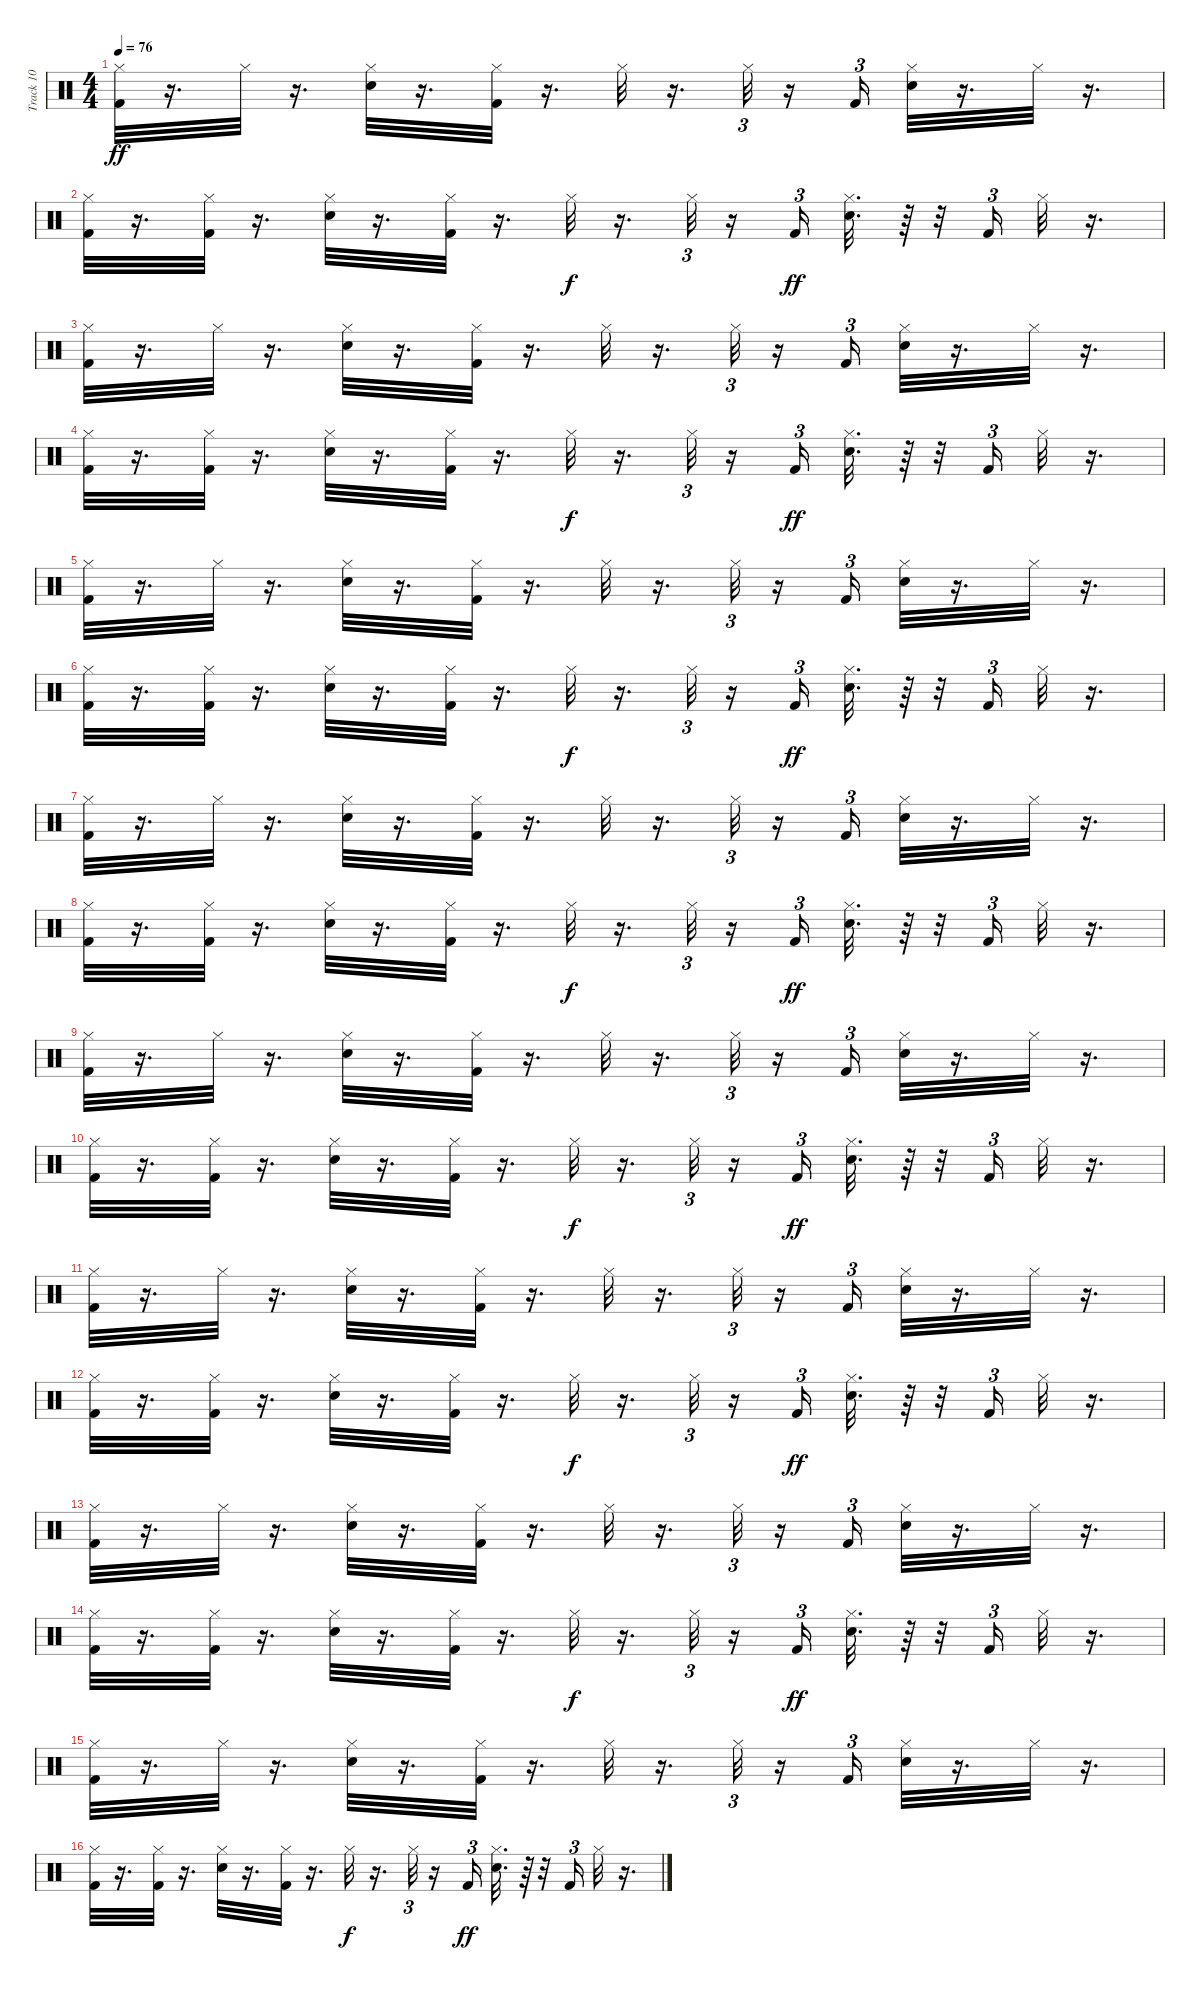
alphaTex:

\track ("Track 10" "Track 10") {instrument percussion}
\staff {score}
\articulation defaults
\ts (4 4)
\tempo 76
\clef neutral
\ks c
("Hi-Hat (closed)" "Kick (hit) 2").32{dy ff} r.16{d} "Hi-Hat (closed)".32 r.16{d} ("Hi-Hat (closed)" "Electric Snare (hit)").32 r.16{d} ("Hi-Hat (closed)" "Kick (hit) 2").32 r.16{d} "Hi-Hat (closed)".32 r.16{d} "Hi-Hat (closed)".32{tu (3 2)} r.16 "Kick (hit) 2".16{tu (3 2)} ("Hi-Hat (closed)" "Electric Snare (hit)").32 r.16{d} "Hi-Hat (closed)".32 r.16{d} |
("Hi-Hat (closed)" "Kick (hit) 2").32 r.16{d} ("Hi-Hat (closed)" "Kick (hit) 2").32 r.16{d} ("Hi-Hat (closed)" "Electric Snare (hit)").32 r.16{d} ("Hi-Hat (closed)" "Kick (hit) 2").32 r.16{d} "Hi-Hat (closed)".32{dy f} r.16{d} "Hi-Hat (closed)".32{tu (3 2)} r.16 "Kick (hit) 2".16{tu (3 2) dy ff} ("Hi-Hat (closed)" "Electric Snare (hit)").32{d} r.64 r.32 "Kick (hit) 2".16{tu (3 2)} "Hi-Hat (closed)".32 r.16{d} |
("Hi-Hat (closed)" "Kick (hit) 2").32 r.16{d} "Hi-Hat (closed)".32 r.16{d} ("Hi-Hat (closed)" "Electric Snare (hit)").32 r.16{d} ("Hi-Hat (closed)" "Kick (hit) 2").32 r.16{d} "Hi-Hat (closed)".32 r.16{d} "Hi-Hat (closed)".32{tu (3 2)} r.16 "Kick (hit) 2".16{tu (3 2)} ("Hi-Hat (closed)" "Electric Snare (hit)").32 r.16{d} "Hi-Hat (closed)".32 r.16{d} |
("Hi-Hat (closed)" "Kick (hit) 2").32 r.16{d} ("Hi-Hat (closed)" "Kick (hit) 2").32 r.16{d} ("Hi-Hat (closed)" "Electric Snare (hit)").32 r.16{d} ("Hi-Hat (closed)" "Kick (hit) 2").32 r.16{d} "Hi-Hat (closed)".32{dy f} r.16{d} "Hi-Hat (closed)".32{tu (3 2)} r.16 "Kick (hit) 2".16{tu (3 2) dy ff} ("Hi-Hat (closed)" "Electric Snare (hit)").32{d} r.64 r.32 "Kick (hit) 2".16{tu (3 2)} "Hi-Hat (closed)".32 r.16{d} |
("Hi-Hat (closed)" "Kick (hit) 2").32 r.16{d} "Hi-Hat (closed)".32 r.16{d} ("Hi-Hat (closed)" "Electric Snare (hit)").32 r.16{d} ("Hi-Hat (closed)" "Kick (hit) 2").32 r.16{d} "Hi-Hat (closed)".32 r.16{d} "Hi-Hat (closed)".32{tu (3 2)} r.16 "Kick (hit) 2".16{tu (3 2)} ("Hi-Hat (closed)" "Electric Snare (hit)").32 r.16{d} "Hi-Hat (closed)".32 r.16{d} |
("Hi-Hat (closed)" "Kick (hit) 2").32 r.16{d} ("Hi-Hat (closed)" "Kick (hit) 2").32 r.16{d} ("Hi-Hat (closed)" "Electric Snare (hit)").32 r.16{d} ("Hi-Hat (closed)" "Kick (hit) 2").32 r.16{d} "Hi-Hat (closed)".32{dy f} r.16{d} "Hi-Hat (closed)".32{tu (3 2)} r.16 "Kick (hit) 2".16{tu (3 2) dy ff} ("Hi-Hat (closed)" "Electric Snare (hit)").32{d} r.64 r.32 "Kick (hit) 2".16{tu (3 2)} "Hi-Hat (closed)".32 r.16{d} |
("Hi-Hat (closed)" "Kick (hit) 2").32 r.16{d} "Hi-Hat (closed)".32 r.16{d} ("Hi-Hat (closed)" "Electric Snare (hit)").32 r.16{d} ("Hi-Hat (closed)" "Kick (hit) 2").32 r.16{d} "Hi-Hat (closed)".32 r.16{d} "Hi-Hat (closed)".32{tu (3 2)} r.16 "Kick (hit) 2".16{tu (3 2)} ("Hi-Hat (closed)" "Electric Snare (hit)").32 r.16{d} "Hi-Hat (closed)".32 r.16{d} |
("Hi-Hat (closed)" "Kick (hit) 2").32 r.16{d} ("Hi-Hat (closed)" "Kick (hit) 2").32 r.16{d} ("Hi-Hat (closed)" "Electric Snare (hit)").32 r.16{d} ("Hi-Hat (closed)" "Kick (hit) 2").32 r.16{d} "Hi-Hat (closed)".32{dy f} r.16{d} "Hi-Hat (closed)".32{tu (3 2)} r.16 "Kick (hit) 2".16{tu (3 2) dy ff} ("Hi-Hat (closed)" "Electric Snare (hit)").32{d} r.64 r.32 "Kick (hit) 2".16{tu (3 2)} "Hi-Hat (closed)".32 r.16{d} |
("Hi-Hat (closed)" "Kick (hit) 2").32 r.16{d} "Hi-Hat (closed)".32 r.16{d} ("Hi-Hat (closed)" "Electric Snare (hit)").32 r.16{d} ("Hi-Hat (closed)" "Kick (hit) 2").32 r.16{d} "Hi-Hat (closed)".32 r.16{d} "Hi-Hat (closed)".32{tu (3 2)} r.16 "Kick (hit) 2".16{tu (3 2)} ("Hi-Hat (closed)" "Electric Snare (hit)").32 r.16{d} "Hi-Hat (closed)".32 r.16{d} |
("Hi-Hat (closed)" "Kick (hit) 2").32 r.16{d} ("Hi-Hat (closed)" "Kick (hit) 2").32 r.16{d} ("Hi-Hat (closed)" "Electric Snare (hit)").32 r.16{d} ("Hi-Hat (closed)" "Kick (hit) 2").32 r.16{d} "Hi-Hat (closed)".32{dy f} r.16{d} "Hi-Hat (closed)".32{tu (3 2)} r.16 "Kick (hit) 2".16{tu (3 2) dy ff} ("Hi-Hat (closed)" "Electric Snare (hit)").32{d} r.64 r.32 "Kick (hit) 2".16{tu (3 2)} "Hi-Hat (closed)".32 r.16{d} |
("Hi-Hat (closed)" "Kick (hit) 2").32 r.16{d} "Hi-Hat (closed)".32 r.16{d} ("Hi-Hat (closed)" "Electric Snare (hit)").32 r.16{d} ("Hi-Hat (closed)" "Kick (hit) 2").32 r.16{d} "Hi-Hat (closed)".32 r.16{d} "Hi-Hat (closed)".32{tu (3 2)} r.16 "Kick (hit) 2".16{tu (3 2)} ("Hi-Hat (closed)" "Electric Snare (hit)").32 r.16{d} "Hi-Hat (closed)".32 r.16{d} |
("Hi-Hat (closed)" "Kick (hit) 2").32 r.16{d} ("Hi-Hat (closed)" "Kick (hit) 2").32 r.16{d} ("Hi-Hat (closed)" "Electric Snare (hit)").32 r.16{d} ("Hi-Hat (closed)" "Kick (hit) 2").32 r.16{d} "Hi-Hat (closed)".32{dy f} r.16{d} "Hi-Hat (closed)".32{tu (3 2)} r.16 "Kick (hit) 2".16{tu (3 2) dy ff} ("Hi-Hat (closed)" "Electric Snare (hit)").32{d} r.64 r.32 "Kick (hit) 2".16{tu (3 2)} "Hi-Hat (closed)".32 r.16{d} |
("Hi-Hat (closed)" "Kick (hit) 2").32 r.16{d} "Hi-Hat (closed)".32 r.16{d} ("Hi-Hat (closed)" "Electric Snare (hit)").32 r.16{d} ("Hi-Hat (closed)" "Kick (hit) 2").32 r.16{d} "Hi-Hat (closed)".32 r.16{d} "Hi-Hat (closed)".32{tu (3 2)} r.16 "Kick (hit) 2".16{tu (3 2)} ("Hi-Hat (closed)" "Electric Snare (hit)").32 r.16{d} "Hi-Hat (closed)".32 r.16{d} |
("Hi-Hat (closed)" "Kick (hit) 2").32 r.16{d} ("Hi-Hat (closed)" "Kick (hit) 2").32 r.16{d} ("Hi-Hat (closed)" "Electric Snare (hit)").32 r.16{d} ("Hi-Hat (closed)" "Kick (hit) 2").32 r.16{d} "Hi-Hat (closed)".32{dy f} r.16{d} "Hi-Hat (closed)".32{tu (3 2)} r.16 "Kick (hit) 2".16{tu (3 2) dy ff} ("Hi-Hat (closed)" "Electric Snare (hit)").32{d} r.64 r.32 "Kick (hit) 2".16{tu (3 2)} "Hi-Hat (closed)".32 r.16{d} |
("Hi-Hat (closed)" "Kick (hit) 2").32 r.16{d} "Hi-Hat (closed)".32 r.16{d} ("Hi-Hat (closed)" "Electric Snare (hit)").32 r.16{d} ("Hi-Hat (closed)" "Kick (hit) 2").32 r.16{d} "Hi-Hat (closed)".32 r.16{d} "Hi-Hat (closed)".32{tu (3 2)} r.16 "Kick (hit) 2".16{tu (3 2)} ("Hi-Hat (closed)" "Electric Snare (hit)").32 r.16{d} "Hi-Hat (closed)".32 r.16{d} |
("Hi-Hat (closed)" "Kick (hit) 2").32 r.16{d} ("Hi-Hat (closed)" "Kick (hit) 2").32 r.16{d} ("Hi-Hat (closed)" "Electric Snare (hit)").32 r.16{d} ("Hi-Hat (closed)" "Kick (hit) 2").32 r.16{d} "Hi-Hat (closed)".32{dy f} r.16{d} "Hi-Hat (closed)".32{tu (3 2)} r.16 "Kick (hit) 2".16{tu (3 2) dy ff} ("Hi-Hat (closed)" "Electric Snare (hit)").32{d} r.64 r.32 "Kick (hit) 2".16{tu (3 2)} "Hi-Hat (closed)".32 r.16{d}
